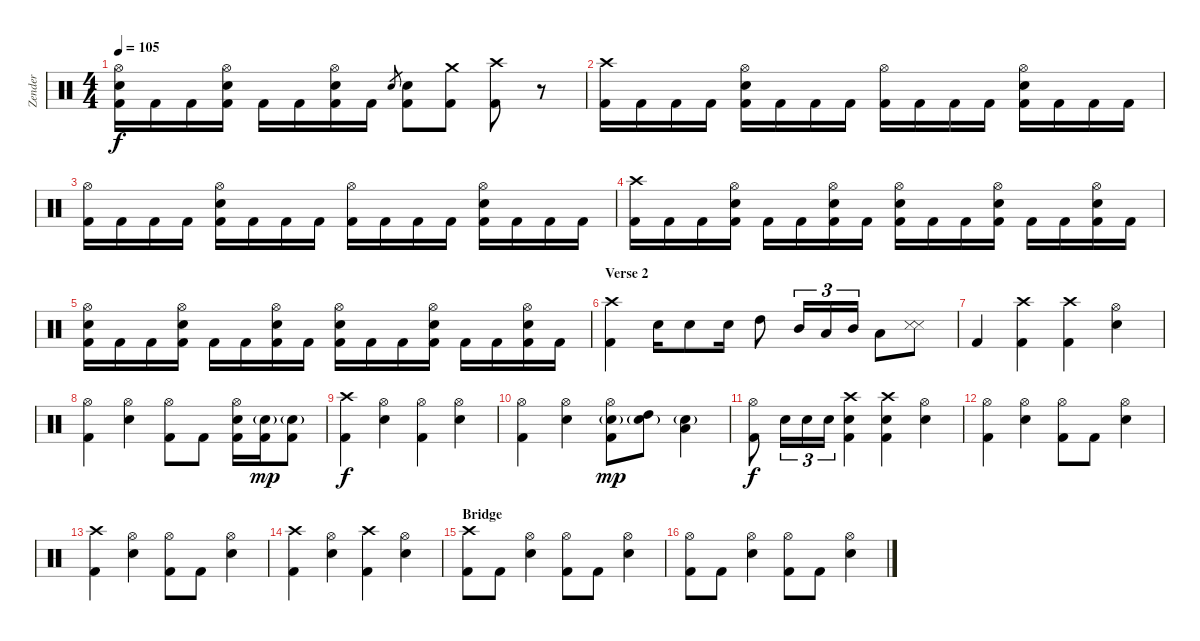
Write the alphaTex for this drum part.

\track ("Zender" "Zender") {instrument percussion}
\staff {score}
\articulation defaults
\ts (4 4)
\tempo 105
\clef neutral
\ks c
("Hi-Hat (open)" "Electric Snare (hit)" "Kick (hit) 2").16{dy f} "Kick (hit) 2".16 "Kick (hit) 2".16 ("Hi-Hat (open)" "Electric Snare (hit)" "Kick (hit) 2").16 "Kick (hit) 2".16 "Kick (hit) 2".16 ("Hi-Hat (open)" "Electric Snare (hit)" "Kick (hit) 2").16 "Kick (hit) 2".16 "Electric Snare (hit)".8{gr} ("Electric Snare (hit)" "Kick (hit) 2").8 ("Crash medium (hit)" "Kick (hit) 2").8 ("Crash high (hit)" "Kick (hit) 2").8 r.8 |
("Crash high (hit)" "Kick (hit) 2").16 "Kick (hit) 2".16 "Kick (hit) 2".16 "Kick (hit) 2".16 ("Hi-Hat (open)" "Electric Snare (hit)" "Kick (hit) 2").16 "Kick (hit) 2".16 "Kick (hit) 2".16 "Kick (hit) 2".16 ("Hi-Hat (open)" "Kick (hit) 2").16 "Kick (hit) 2".16 "Kick (hit) 2".16 "Kick (hit) 2".16 ("Hi-Hat (open)" "Electric Snare (hit)" "Kick (hit) 2").16 "Kick (hit) 2".16 "Kick (hit) 2".16 "Kick (hit) 2".16 |
("Hi-Hat (open)" "Kick (hit) 2").16 "Kick (hit) 2".16 "Kick (hit) 2".16 "Kick (hit) 2".16 ("Hi-Hat (open)" "Electric Snare (hit)" "Kick (hit) 2").16 "Kick (hit) 2".16 "Kick (hit) 2".16 "Kick (hit) 2".16 ("Hi-Hat (open)" "Kick (hit) 2").16 "Kick (hit) 2".16 "Kick (hit) 2".16 "Kick (hit) 2".16 ("Hi-Hat (open)" "Electric Snare (hit)" "Kick (hit) 2").16 "Kick (hit) 2".16 "Kick (hit) 2".16 "Kick (hit) 2".16 |
("Crash high (hit)" "Kick (hit) 2").16 "Kick (hit) 2".16 "Kick (hit) 2".16 ("Hi-Hat (open)" "Electric Snare (hit)" "Kick (hit) 2").16 "Kick (hit) 2".16 "Kick (hit) 2".16 ("Hi-Hat (open)" "Electric Snare (hit)" "Kick (hit) 2").16 "Kick (hit) 2".16 ("Hi-Hat (open)" "Electric Snare (hit)" "Kick (hit) 2").16 "Kick (hit) 2".16 "Kick (hit) 2".16 ("Hi-Hat (open)" "Electric Snare (hit)" "Kick (hit) 2").16 "Kick (hit) 2".16 "Kick (hit) 2".16 ("Hi-Hat (open)" "Electric Snare (hit)" "Kick (hit) 2").16 "Kick (hit) 2".16 |
("Hi-Hat (open)" "Electric Snare (hit)" "Kick (hit) 2").16 "Kick (hit) 2".16 "Kick (hit) 2".16 ("Hi-Hat (open)" "Electric Snare (hit)" "Kick (hit) 2").16 "Kick (hit) 2".16 "Kick (hit) 2".16 ("Hi-Hat (open)" "Electric Snare (hit)" "Kick (hit) 2").16 "Kick (hit) 2".16 ("Hi-Hat (open)" "Electric Snare (hit)" "Kick (hit) 2").16 "Kick (hit) 2".16 "Kick (hit) 2".16 ("Hi-Hat (open)" "Electric Snare (hit)" "Kick (hit) 2").16 "Kick (hit) 2".16 "Kick (hit) 2".16 ("Hi-Hat (open)" "Electric Snare (hit)" "Kick (hit) 2").16 "Kick (hit) 2".16 |
\section ("" "Verse 2")
("Crash high (hit)" "Kick (hit) 2").4 "Electric Snare (hit)".16 "Electric Snare (hit)".8 "Electric Snare (hit)".16 "High Tom (hit)".8 "Mid Tom (hit)".16{tu (3 2)} "Low Tom (hit)".16{tu (3 2)} "Mid Tom (hit)".16{tu (3 2)} "Low Floor Tom (hit)".8 ("Snare (side stick) 3" "Snare (side stick) 3").8 |
"Kick (hit) 2".4 ("Crash high (hit)" "Kick (hit) 2").4 ("Crash high (hit)" "Kick (hit) 2").4 ("Electric Snare (hit)" "Hi-Hat (open)").4 |
("Hi-Hat (open)" "Kick (hit) 2").4 ("Electric Snare (hit)" "Hi-Hat (open)").4 ("Hi-Hat (open)" "Kick (hit) 2").8 "Kick (hit) 2".8 ("Electric Snare (hit)" "Hi-Hat (open)" "Kick (hit) 2").16 ("Electric Snare (hit)"{g} "Kick (hit) 2").16{dy mp} ("Electric Snare (hit)"{g} "Kick (hit) 2").8 |
("Crash high (hit)" "Kick (hit) 2").4{dy f} ("Electric Snare (hit)" "Hi-Hat (open)").4 ("Hi-Hat (open)" "Kick (hit) 2").4 ("Electric Snare (hit)" "Hi-Hat (open)").4 |
("Hi-Hat (open)" "Kick (hit) 2").4 ("Electric Snare (hit)" "Hi-Hat (open)").4 ("Hi-Hat (open)" "Electric Snare (hit)"{g} "Kick (hit) 2").8{dy mp} ("High Tom (hit)" "Electric Snare (hit)"{g}).8 ("Low Tom (hit)" "Electric Snare (hit)"{g}).4 |
("Hi-Hat (open)" "Kick (hit) 2").8{dy f} "Electric Snare (hit)".16{tu (3 2)} "Electric Snare (hit)".16{tu (3 2)} "Electric Snare (hit)".16{tu (3 2)} ("Crash high (hit)" "Electric Snare (hit)" "Kick (hit) 2").4 ("Crash high (hit)" "Electric Snare (hit)" "Kick (hit) 2").4 ("Electric Snare (hit)" "Hi-Hat (open)").4 |
("Hi-Hat (open)" "Kick (hit) 2").4 ("Hi-Hat (open)" "Electric Snare (hit)").4 ("Hi-Hat (open)" "Kick (hit) 2").8 "Kick (hit) 2".8 ("Hi-Hat (open)" "Electric Snare (hit)").4 |
("Crash high (hit)" "Kick (hit) 2").4 ("Hi-Hat (open)" "Electric Snare (hit)").4 ("Hi-Hat (open)" "Kick (hit) 2").8 "Kick (hit) 2".8 ("Hi-Hat (open)" "Electric Snare (hit)").4 |
("Crash high (hit)" "Kick (hit) 2").4 ("Hi-Hat (open)" "Electric Snare (hit)").4 ("Crash high (hit)" "Kick (hit) 2").4 ("Hi-Hat (open)" "Electric Snare (hit)").4 |
\section ("" "Bridge")
("Crash high (hit)" "Kick (hit) 2").8 "Kick (hit) 2".8 ("Hi-Hat (open)" "Electric Snare (hit)").4 ("Hi-Hat (open)" "Kick (hit) 2").8 "Kick (hit) 2".8 ("Hi-Hat (open)" "Electric Snare (hit)").4 |
("Hi-Hat (open)" "Kick (hit) 2").8 "Kick (hit) 2".8 ("Hi-Hat (open)" "Electric Snare (hit)").4 ("Hi-Hat (open)" "Kick (hit) 2").8 "Kick (hit) 2".8 ("Hi-Hat (open)" "Electric Snare (hit)").4
